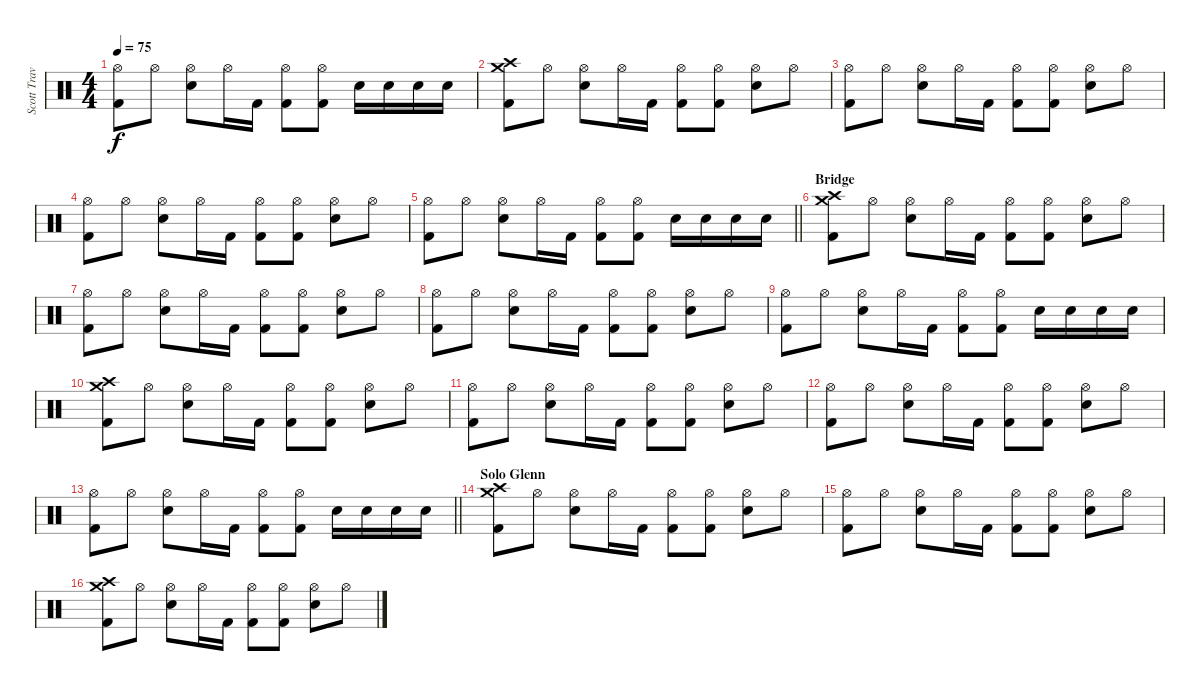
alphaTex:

\track ("Scott Travis" "Scott Trav") {instrument percussion}
\staff {score}
\articulation defaults
\ts (4 4)
\tempo 75
\clef neutral
\ks c
("Hi-Hat (open)" "Kick (hit) 2").8{dy f} "Hi-Hat (open)".8 ("Hi-Hat (open)" "Snare (hit) 2").8 "Hi-Hat (open)".16 "Kick (hit) 2".16 ("Hi-Hat (open)" "Kick (hit) 2").8 ("Hi-Hat (open)" "Kick (hit) 2").8 "Snare (hit) 2".16 "Snare (hit) 2".16 "Snare (hit) 2".16 "Snare (hit) 2".16 |
("Crash high (hit)" "Crash medium (hit)" "Kick (hit) 2").8 "Hi-Hat (open)".8 ("Hi-Hat (open)" "Snare (hit) 2").8 "Hi-Hat (open)".16 "Kick (hit) 2".16 ("Hi-Hat (open)" "Kick (hit) 2").8 ("Hi-Hat (open)" "Kick (hit) 2").8 ("Hi-Hat (open)" "Snare (hit) 2").8 "Hi-Hat (open)".8 |
("Hi-Hat (open)" "Kick (hit) 2").8 "Hi-Hat (open)".8 ("Hi-Hat (open)" "Snare (hit) 2").8 "Hi-Hat (open)".16 "Kick (hit) 2".16 ("Hi-Hat (open)" "Kick (hit) 2").8 ("Hi-Hat (open)" "Kick (hit) 2").8 ("Hi-Hat (open)" "Snare (hit) 2").8 "Hi-Hat (open)".8 |
("Hi-Hat (open)" "Kick (hit) 2").8 "Hi-Hat (open)".8 ("Hi-Hat (open)" "Snare (hit) 2").8 "Hi-Hat (open)".16 "Kick (hit) 2".16 ("Hi-Hat (open)" "Kick (hit) 2").8 ("Hi-Hat (open)" "Kick (hit) 2").8 ("Hi-Hat (open)" "Snare (hit) 2").8 "Hi-Hat (open)".8 |
\barLineRight lightlight
("Hi-Hat (open)" "Kick (hit) 2").8 "Hi-Hat (open)".8 ("Hi-Hat (open)" "Snare (hit) 2").8 "Hi-Hat (open)".16 "Kick (hit) 2".16 ("Hi-Hat (open)" "Kick (hit) 2").8 ("Hi-Hat (open)" "Kick (hit) 2").8 "Snare (hit) 2".16 "Snare (hit) 2".16 "Snare (hit) 2".16 "Snare (hit) 2".16 |
\section ("" "Bridge")
("Crash high (hit)" "Crash medium (hit)" "Kick (hit) 2").8 "Hi-Hat (open)".8 ("Hi-Hat (open)" "Snare (hit) 2").8 "Hi-Hat (open)".16 "Kick (hit) 2".16 ("Hi-Hat (open)" "Kick (hit) 2").8 ("Hi-Hat (open)" "Kick (hit) 2").8 ("Hi-Hat (open)" "Snare (hit) 2").8 "Hi-Hat (open)".8 |
("Hi-Hat (open)" "Kick (hit) 2").8 "Hi-Hat (open)".8 ("Hi-Hat (open)" "Snare (hit) 2").8 "Hi-Hat (open)".16 "Kick (hit) 2".16 ("Hi-Hat (open)" "Kick (hit) 2").8 ("Hi-Hat (open)" "Kick (hit) 2").8 ("Hi-Hat (open)" "Snare (hit) 2").8 "Hi-Hat (open)".8 |
("Hi-Hat (open)" "Kick (hit) 2").8 "Hi-Hat (open)".8 ("Hi-Hat (open)" "Snare (hit) 2").8 "Hi-Hat (open)".16 "Kick (hit) 2".16 ("Hi-Hat (open)" "Kick (hit) 2").8 ("Hi-Hat (open)" "Kick (hit) 2").8 ("Hi-Hat (open)" "Snare (hit) 2").8 "Hi-Hat (open)".8 |
("Hi-Hat (open)" "Kick (hit) 2").8 "Hi-Hat (open)".8 ("Hi-Hat (open)" "Snare (hit) 2").8 "Hi-Hat (open)".16 "Kick (hit) 2".16 ("Hi-Hat (open)" "Kick (hit) 2").8 ("Hi-Hat (open)" "Kick (hit) 2").8 "Snare (hit) 2".16 "Snare (hit) 2".16 "Snare (hit) 2".16 "Snare (hit) 2".16 |
("Crash high (hit)" "Crash medium (hit)" "Kick (hit) 2").8 "Hi-Hat (open)".8 ("Hi-Hat (open)" "Snare (hit) 2").8 "Hi-Hat (open)".16 "Kick (hit) 2".16 ("Hi-Hat (open)" "Kick (hit) 2").8 ("Hi-Hat (open)" "Kick (hit) 2").8 ("Hi-Hat (open)" "Snare (hit) 2").8 "Hi-Hat (open)".8 |
("Hi-Hat (open)" "Kick (hit) 2").8 "Hi-Hat (open)".8 ("Hi-Hat (open)" "Snare (hit) 2").8 "Hi-Hat (open)".16 "Kick (hit) 2".16 ("Hi-Hat (open)" "Kick (hit) 2").8 ("Hi-Hat (open)" "Kick (hit) 2").8 ("Hi-Hat (open)" "Snare (hit) 2").8 "Hi-Hat (open)".8 |
("Hi-Hat (open)" "Kick (hit) 2").8 "Hi-Hat (open)".8 ("Hi-Hat (open)" "Snare (hit) 2").8 "Hi-Hat (open)".16 "Kick (hit) 2".16 ("Hi-Hat (open)" "Kick (hit) 2").8 ("Hi-Hat (open)" "Kick (hit) 2").8 ("Hi-Hat (open)" "Snare (hit) 2").8 "Hi-Hat (open)".8 |
\barLineRight lightlight
("Hi-Hat (open)" "Kick (hit) 2").8 "Hi-Hat (open)".8 ("Hi-Hat (open)" "Snare (hit) 2").8 "Hi-Hat (open)".16 "Kick (hit) 2".16 ("Hi-Hat (open)" "Kick (hit) 2").8 ("Hi-Hat (open)" "Kick (hit) 2").8 "Snare (hit) 2".16 "Snare (hit) 2".16 "Snare (hit) 2".16 "Snare (hit) 2".16 |
\section ("" "Solo Glenn")
("Crash high (hit)" "Crash medium (hit)" "Kick (hit) 2").8 "Hi-Hat (open)".8 ("Hi-Hat (open)" "Snare (hit) 2").8 "Hi-Hat (open)".16 "Kick (hit) 2".16 ("Hi-Hat (open)" "Kick (hit) 2").8 ("Hi-Hat (open)" "Kick (hit) 2").8 ("Hi-Hat (open)" "Snare (hit) 2").8 "Hi-Hat (open)".8 |
("Hi-Hat (open)" "Kick (hit) 2").8 "Hi-Hat (open)".8 ("Hi-Hat (open)" "Snare (hit) 2").8 "Hi-Hat (open)".16 "Kick (hit) 2".16 ("Hi-Hat (open)" "Kick (hit) 2").8 ("Hi-Hat (open)" "Kick (hit) 2").8 ("Hi-Hat (open)" "Snare (hit) 2").8 "Hi-Hat (open)".8 |
("Crash high (hit)" "Crash medium (hit)" "Kick (hit) 2").8 "Hi-Hat (open)".8 ("Hi-Hat (open)" "Snare (hit) 2").8 "Hi-Hat (open)".16 "Kick (hit) 2".16 ("Hi-Hat (open)" "Kick (hit) 2").8 ("Hi-Hat (open)" "Kick (hit) 2").8 ("Hi-Hat (open)" "Snare (hit) 2").8 "Hi-Hat (open)".8
